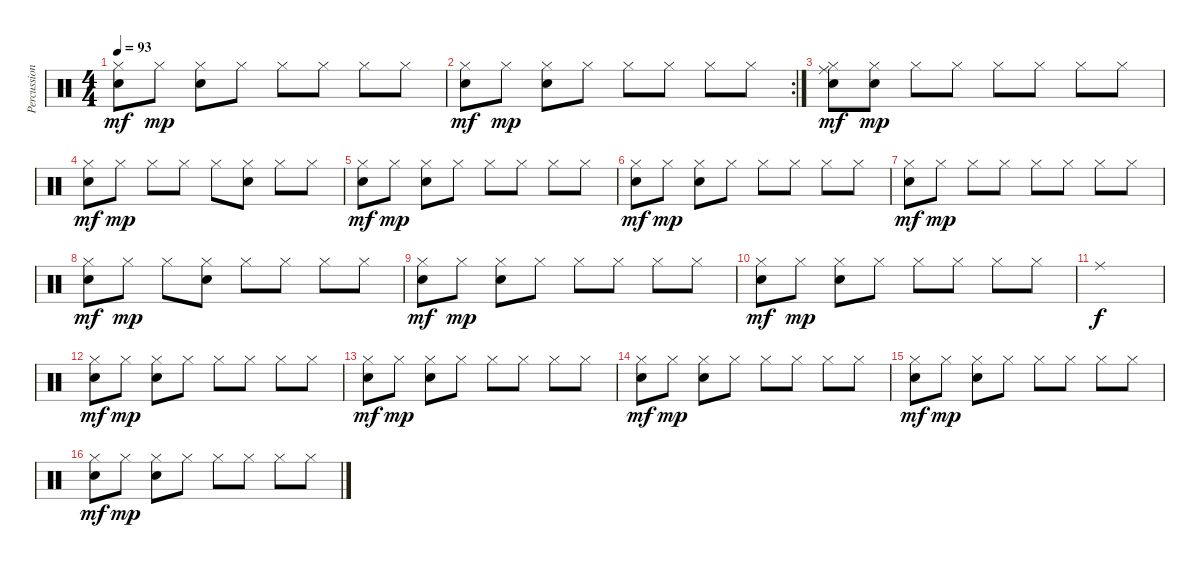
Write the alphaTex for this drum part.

\track ("Percussions" "Percussion") {instrument percussion}
\staff {score}
\articulation defaults
\ts (4 4)
\tempo 93
\clef neutral
\ks c
("Hi-Hat (closed)" "Electric Snare (hit)").8{dy mf} "Hi-Hat (closed)".8{dy mp} ("Hi-Hat (closed)" "Electric Snare (hit)").8 "Hi-Hat (closed)".8 "Hi-Hat (closed)".8 "Hi-Hat (closed)".8 "Hi-Hat (closed)".8 "Hi-Hat (closed)".8 |
\rc 2
("Hi-Hat (closed)" "Electric Snare (hit)").8{dy mf} "Hi-Hat (closed)".8{dy mp} ("Hi-Hat (closed)" "Electric Snare (hit)").8 "Hi-Hat (closed)".8 "Hi-Hat (closed)".8 "Hi-Hat (closed)".8 "Hi-Hat (closed)".8 "Hi-Hat (closed)".8 |
("Hi-Hat (closed)" "Ride (middle)" "Electric Snare (hit)").8{dy mf} ("Hi-Hat (closed)" "Electric Snare (hit)").8{dy mp} "Hi-Hat (closed)".8 "Hi-Hat (closed)".8 "Hi-Hat (closed)".8 "Hi-Hat (closed)".8 "Hi-Hat (closed)".8 "Hi-Hat (closed)".8 |
("Hi-Hat (closed)" "Electric Snare (hit)").8{dy mf} "Hi-Hat (closed)".8{dy mp} "Hi-Hat (closed)".8 "Hi-Hat (closed)".8 "Hi-Hat (closed)".8 ("Hi-Hat (closed)" "Electric Snare (hit)").8 "Hi-Hat (closed)".8 "Hi-Hat (closed)".8 |
("Hi-Hat (closed)" "Electric Snare (hit)").8{dy mf} "Hi-Hat (closed)".8{dy mp} ("Hi-Hat (closed)" "Electric Snare (hit)").8 "Hi-Hat (closed)".8 "Hi-Hat (closed)".8 "Hi-Hat (closed)".8 "Hi-Hat (closed)".8 "Hi-Hat (closed)".8 |
("Hi-Hat (closed)" "Electric Snare (hit)").8{dy mf} "Hi-Hat (closed)".8{dy mp} ("Hi-Hat (closed)" "Electric Snare (hit)").8 "Hi-Hat (closed)".8 "Hi-Hat (closed)".8 "Hi-Hat (closed)".8 "Hi-Hat (closed)".8 "Hi-Hat (closed)".8 |
("Hi-Hat (closed)" "Electric Snare (hit)").8{dy mf} "Hi-Hat (closed)".8{dy mp} "Hi-Hat (closed)".8 "Hi-Hat (closed)".8 "Hi-Hat (closed)".8 "Hi-Hat (closed)".8 "Hi-Hat (closed)".8 "Hi-Hat (closed)".8 |
("Hi-Hat (closed)" "Electric Snare (hit)").8{dy mf} "Hi-Hat (closed)".8{dy mp} "Hi-Hat (closed)".8 ("Hi-Hat (closed)" "Electric Snare (hit)").8 "Hi-Hat (closed)".8 "Hi-Hat (closed)".8 "Hi-Hat (closed)".8 "Hi-Hat (closed)".8 |
("Hi-Hat (closed)" "Electric Snare (hit)").8{dy mf} "Hi-Hat (closed)".8{dy mp} ("Hi-Hat (closed)" "Electric Snare (hit)").8 "Hi-Hat (closed)".8 "Hi-Hat (closed)".8 "Hi-Hat (closed)".8 "Hi-Hat (closed)".8 "Hi-Hat (closed)".8 |
("Hi-Hat (closed)" "Electric Snare (hit)").8{dy mf} "Hi-Hat (closed)".8{dy mp} ("Hi-Hat (closed)" "Electric Snare (hit)").8 "Hi-Hat (closed)".8 "Hi-Hat (closed)".8 "Hi-Hat (closed)".8 "Hi-Hat (closed)".8 "Hi-Hat (closed)".8 |
"Ride (middle)".1{dy f} |
("Hi-Hat (closed)" "Electric Snare (hit)").8{dy mf} "Hi-Hat (closed)".8{dy mp} ("Hi-Hat (closed)" "Electric Snare (hit)").8 "Hi-Hat (closed)".8 "Hi-Hat (closed)".8 "Hi-Hat (closed)".8 "Hi-Hat (closed)".8 "Hi-Hat (closed)".8 |
("Hi-Hat (closed)" "Electric Snare (hit)").8{dy mf} "Hi-Hat (closed)".8{dy mp} ("Hi-Hat (closed)" "Electric Snare (hit)").8 "Hi-Hat (closed)".8 "Hi-Hat (closed)".8 "Hi-Hat (closed)".8 "Hi-Hat (closed)".8 "Hi-Hat (closed)".8 |
("Hi-Hat (closed)" "Electric Snare (hit)").8{dy mf} "Hi-Hat (closed)".8{dy mp} ("Hi-Hat (closed)" "Electric Snare (hit)").8 "Hi-Hat (closed)".8 "Hi-Hat (closed)".8 "Hi-Hat (closed)".8 "Hi-Hat (closed)".8 "Hi-Hat (closed)".8 |
("Hi-Hat (closed)" "Electric Snare (hit)").8{dy mf} "Hi-Hat (closed)".8{dy mp} ("Hi-Hat (closed)" "Electric Snare (hit)").8 "Hi-Hat (closed)".8 "Hi-Hat (closed)".8 "Hi-Hat (closed)".8 "Hi-Hat (closed)".8 "Hi-Hat (closed)".8 |
("Hi-Hat (closed)" "Electric Snare (hit)").8{dy mf} "Hi-Hat (closed)".8{dy mp} ("Hi-Hat (closed)" "Electric Snare (hit)").8 "Hi-Hat (closed)".8 "Hi-Hat (closed)".8 "Hi-Hat (closed)".8 "Hi-Hat (closed)".8 "Hi-Hat (closed)".8
